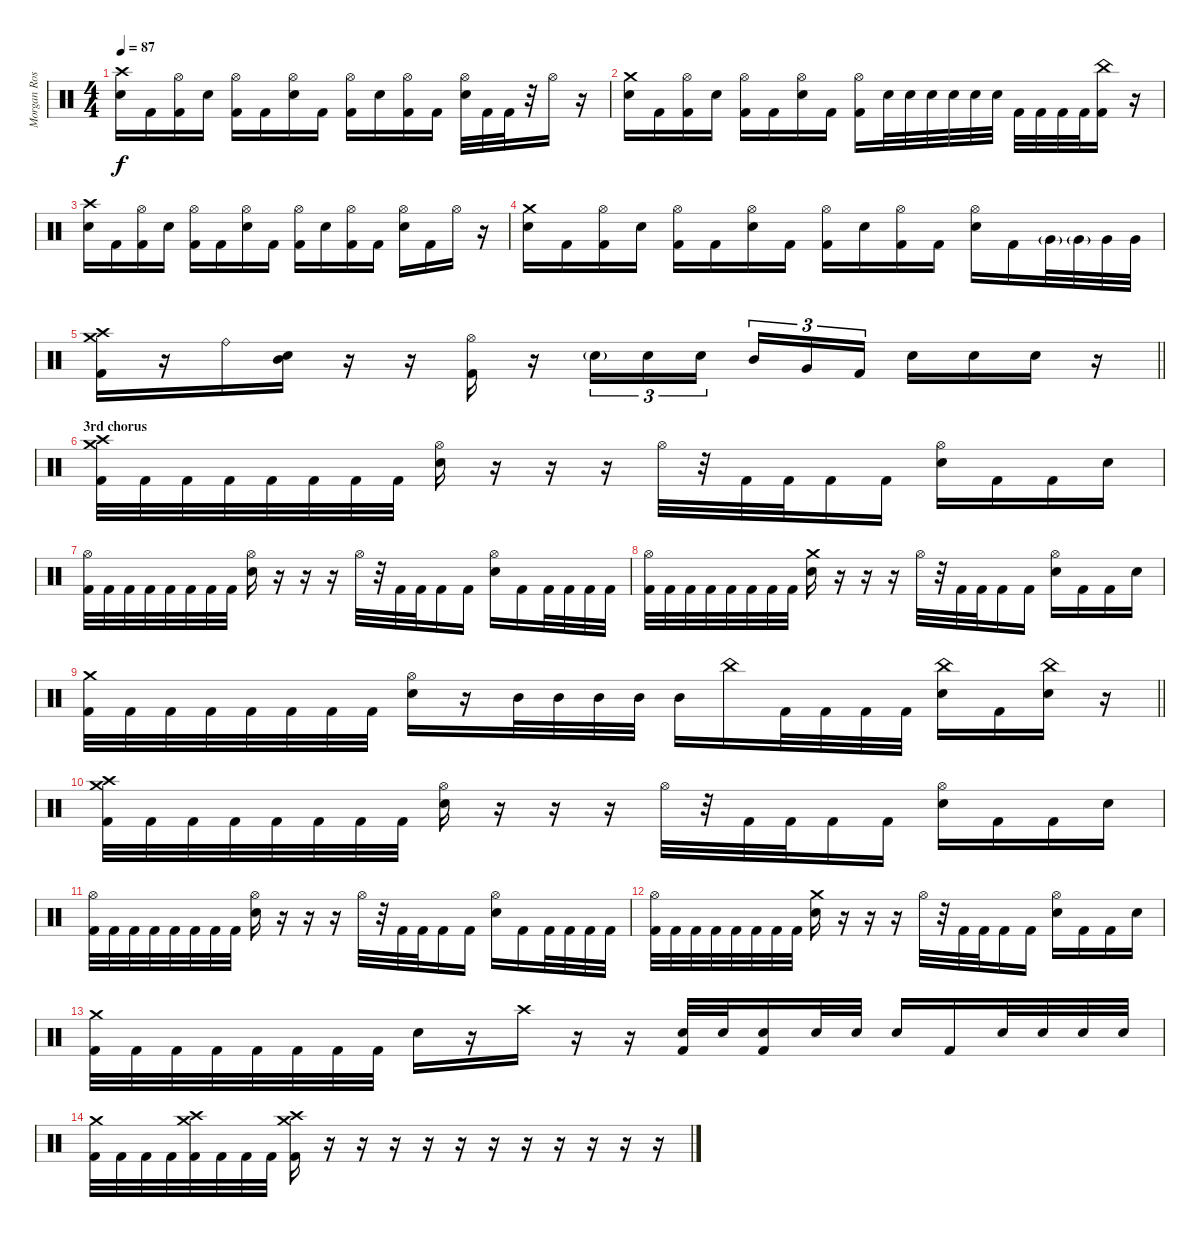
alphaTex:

\track ("Morgan Rose" "Morgan Ros") {instrument percussion}
\staff {score}
\articulation defaults
\ts (4 4)
\tempo 87
\clef neutral
\ks c
("Crash high (hit)" "Snare (hit) 2").16{dy f} "Kick (hit) 2".16 ("Hi-Hat (open)" "Kick (hit) 2").16 "Snare (hit) 2".16 ("Hi-Hat (open)" "Kick (hit) 2").16 "Kick (hit) 2".16 ("Hi-Hat (open)" "Snare (hit) 2").16 "Kick (hit) 2".16 ("Hi-Hat (open)" "Kick (hit) 2").16 "Snare (hit) 2".16 ("Hi-Hat (open)" "Kick (hit) 2").16 "Kick (hit) 2".16 ("Hi-Hat (open)" "Snare (hit) 2").32 "Kick (hit) 2".32 "Kick (hit) 2".32 r.32 "Hi-Hat (open)".16 r.16 |
("Crash medium (hit)" "Snare (hit) 2").16 "Kick (hit) 2".16 ("Hi-Hat (open)" "Kick (hit) 2").16 "Snare (hit) 2".16 ("Hi-Hat (open)" "Kick (hit) 2").16 "Kick (hit) 2".16 ("Hi-Hat (open)" "Snare (hit) 2").16 "Kick (hit) 2".16 ("Hi-Hat (open)" "Kick (hit) 2").16 "Snare (hit) 2".32 "Snare (hit) 2".32 "Snare (hit) 2".32 "Snare (hit) 2".32 "Snare (hit) 2".32 "Snare (hit) 2".32 "Kick (hit) 2".32 "Kick (hit) 2".32 "Kick (hit) 2".32 "Kick (hit) 2".32 ("China (hit)" "Kick (hit) 2").16 r.16 |
("Crash high (hit)" "Snare (hit) 2").16 "Kick (hit) 2".16 ("Hi-Hat (open)" "Kick (hit) 2").16 "Snare (hit) 2".16 ("Hi-Hat (open)" "Kick (hit) 2").16 "Kick (hit) 2".16 ("Hi-Hat (open)" "Snare (hit) 2").16 "Kick (hit) 2".16 ("Hi-Hat (open)" "Kick (hit) 2").16 "Snare (hit) 2".16 ("Hi-Hat (open)" "Kick (hit) 2").16 "Kick (hit) 2".16 ("Hi-Hat (open)" "Snare (hit) 2").16 "Kick (hit) 2".16 "Hi-Hat (open)".16 r.16 |
("Crash medium (hit)" "Snare (hit) 2").16 "Kick (hit) 2".16 ("Hi-Hat (open)" "Kick (hit) 2").16 "Snare (hit) 2".16 ("Hi-Hat (open)" "Kick (hit) 2").16 "Kick (hit) 2".16 ("Hi-Hat (open)" "Snare (hit) 2").16 "Kick (hit) 2".16 ("Hi-Hat (open)" "Kick (hit) 2").16 "Snare (hit) 2".16 ("Hi-Hat (open)" "Kick (hit) 2").16 "Kick (hit) 2".16 ("Hi-Hat (open)" "Snare (hit) 2").16 "Kick (hit) 2".16 "Very Low Tom (hit)"{g}.32 "Very Low Tom (hit)"{g}.32 "Very Low Tom (hit)".32 "Very Low Tom (hit)".32 |
\barLineRight lightlight
("Crash medium (hit)" "Crash high (hit)" "Kick (hit) 2").16 r.16 "Ride (bell)".16 ("Mid Tom (hit)" "Snare (hit) 2").16 r.16 r.16 ("Hi-Hat (open)" "Kick (hit) 2").16 r.16 "Snare (hit) 2"{g}.16{tu (3 2)} "Snare (hit) 2".16{tu (3 2)} "Snare (hit) 2".16{tu (3 2) beam splitsecondary} "Mid Tom (hit)".16{tu (3 2)} "Very Low Tom (hit)".16{tu (3 2)} "Kick (hit) 2".16{tu (3 2)} "Snare (hit) 2".16 "Snare (hit) 2".16 "Snare (hit) 2".16 r.16 |
\section ("" "3rd chorus")
("Crash medium (hit)" "Crash high (hit)" "Kick (hit) 2").32 "Kick (hit) 2".32 "Kick (hit) 2".32 "Kick (hit) 2".32 "Kick (hit) 2".32 "Kick (hit) 2".32 "Kick (hit) 2".32 "Kick (hit) 2".32 ("Hi-Hat (open)" "Snare (hit) 2").16 r.16 r.16 r.16 "Hi-Hat (open)".32 r.32 "Kick (hit) 2".32 "Kick (hit) 2".32 "Kick (hit) 2".16 "Kick (hit) 2".16 ("Hi-Hat (open)" "Snare (hit) 2").16 "Kick (hit) 2".16 "Kick (hit) 2".16 "Snare (hit) 2".16 |
("Hi-Hat (open)" "Kick (hit) 2").32 "Kick (hit) 2".32 "Kick (hit) 2".32 "Kick (hit) 2".32 "Kick (hit) 2".32 "Kick (hit) 2".32 "Kick (hit) 2".32 "Kick (hit) 2".32 ("Hi-Hat (open)" "Snare (hit) 2").16 r.16 r.16 r.16 "Hi-Hat (open)".32 r.32 "Kick (hit) 2".32 "Kick (hit) 2".32 "Kick (hit) 2".16 "Kick (hit) 2".16 ("Hi-Hat (open)" "Snare (hit) 2").16 "Kick (hit) 2".16 "Kick (hit) 2".32 "Kick (hit) 2".32 "Kick (hit) 2".32 "Kick (hit) 2".32 |
("Hi-Hat (open)" "Kick (hit) 2").32 "Kick (hit) 2".32 "Kick (hit) 2".32 "Kick (hit) 2".32 "Kick (hit) 2".32 "Kick (hit) 2".32 "Kick (hit) 2".32 "Kick (hit) 2".32 ("Crash medium (hit)" "Snare (hit) 2").16 r.16 r.16 r.16 "Hi-Hat (open)".32 r.32 "Kick (hit) 2".32 "Kick (hit) 2".32 "Kick (hit) 2".16 "Kick (hit) 2".16 ("Hi-Hat (open)" "Snare (hit) 2").16 "Kick (hit) 2".16 "Kick (hit) 2".16 "Snare (hit) 2".16 |
\barLineRight lightlight
("Crash medium (hit)" "Kick (hit) 2").32 "Kick (hit) 2".32 "Kick (hit) 2".32 "Kick (hit) 2".32 "Kick (hit) 2".32 "Kick (hit) 2".32 "Kick (hit) 2".32 "Kick (hit) 2".32 ("Hi-Hat (open)" "Snare (hit) 2").16 r.16 "Mid Tom (hit)".32 "Mid Tom (hit)".32 "Mid Tom (hit)".32 "Mid Tom (hit)".32 "Mid Tom (hit)".16 "China (hit)".16 "Kick (hit) 2".32 "Kick (hit) 2".32 "Kick (hit) 2".32 "Kick (hit) 2".32 ("China (hit)" "Snare (hit) 2").16 "Kick (hit) 2".16 ("China (hit)" "Snare (hit) 2").16 r.16 |
("Crash medium (hit)" "Crash high (hit)" "Kick (hit) 2").32 "Kick (hit) 2".32 "Kick (hit) 2".32 "Kick (hit) 2".32 "Kick (hit) 2".32 "Kick (hit) 2".32 "Kick (hit) 2".32 "Kick (hit) 2".32 ("Hi-Hat (open)" "Snare (hit) 2").16 r.16 r.16 r.16 "Hi-Hat (open)".32 r.32 "Kick (hit) 2".32 "Kick (hit) 2".32 "Kick (hit) 2".16 "Kick (hit) 2".16 ("Hi-Hat (open)" "Snare (hit) 2").16 "Kick (hit) 2".16 "Kick (hit) 2".16 "Snare (hit) 2".16 |
("Hi-Hat (open)" "Kick (hit) 2").32 "Kick (hit) 2".32 "Kick (hit) 2".32 "Kick (hit) 2".32 "Kick (hit) 2".32 "Kick (hit) 2".32 "Kick (hit) 2".32 "Kick (hit) 2".32 ("Hi-Hat (open)" "Snare (hit) 2").16 r.16 r.16 r.16 "Hi-Hat (open)".32 r.32 "Kick (hit) 2".32 "Kick (hit) 2".32 "Kick (hit) 2".16 "Kick (hit) 2".16 ("Hi-Hat (open)" "Snare (hit) 2").16 "Kick (hit) 2".16 "Kick (hit) 2".32 "Kick (hit) 2".32 "Kick (hit) 2".32 "Kick (hit) 2".32 |
("Hi-Hat (open)" "Kick (hit) 2").32 "Kick (hit) 2".32 "Kick (hit) 2".32 "Kick (hit) 2".32 "Kick (hit) 2".32 "Kick (hit) 2".32 "Kick (hit) 2".32 "Kick (hit) 2".32 ("Crash medium (hit)" "Snare (hit) 2").16 r.16 r.16 r.16 "Hi-Hat (open)".32 r.32 "Kick (hit) 2".32 "Kick (hit) 2".32 "Kick (hit) 2".16 "Kick (hit) 2".16 ("Hi-Hat (open)" "Snare (hit) 2").16 "Kick (hit) 2".16 "Kick (hit) 2".16 "Snare (hit) 2".16 |
("Crash medium (hit)" "Kick (hit) 2").32 "Kick (hit) 2".32 "Kick (hit) 2".32 "Kick (hit) 2".32 "Kick (hit) 2".32 "Kick (hit) 2".32 "Kick (hit) 2".32 "Kick (hit) 2".32 "Snare (hit) 2".16 r.16 "Crash high (hit)".16 r.16 r.16 ("Snare (hit) 2" "Kick (hit) 2").32 "Snare (hit) 2".32 ("Snare (hit) 2" "Kick (hit) 2").16 "Snare (hit) 2".32 "Snare (hit) 2".32 "Snare (hit) 2".16 "Kick (hit) 2".16 "Snare (hit) 2".32 "Snare (hit) 2".32 "Snare (hit) 2".32 "Snare (hit) 2".32 |
("Crash medium (hit)" "Kick (hit) 2").32 "Kick (hit) 2".32 "Kick (hit) 2".32 "Kick (hit) 2".32 ("Crash medium (hit)" "Crash high (hit)" "Kick (hit) 2").32 "Kick (hit) 2".32 "Kick (hit) 2".32 "Kick (hit) 2".32 ("Crash medium (hit)" "Crash high (hit)" "Kick (hit) 2").16 r.16 r.16 r.16 r.16 r.16 r.16 r.16 r.16 r.16 r.16 r.16
